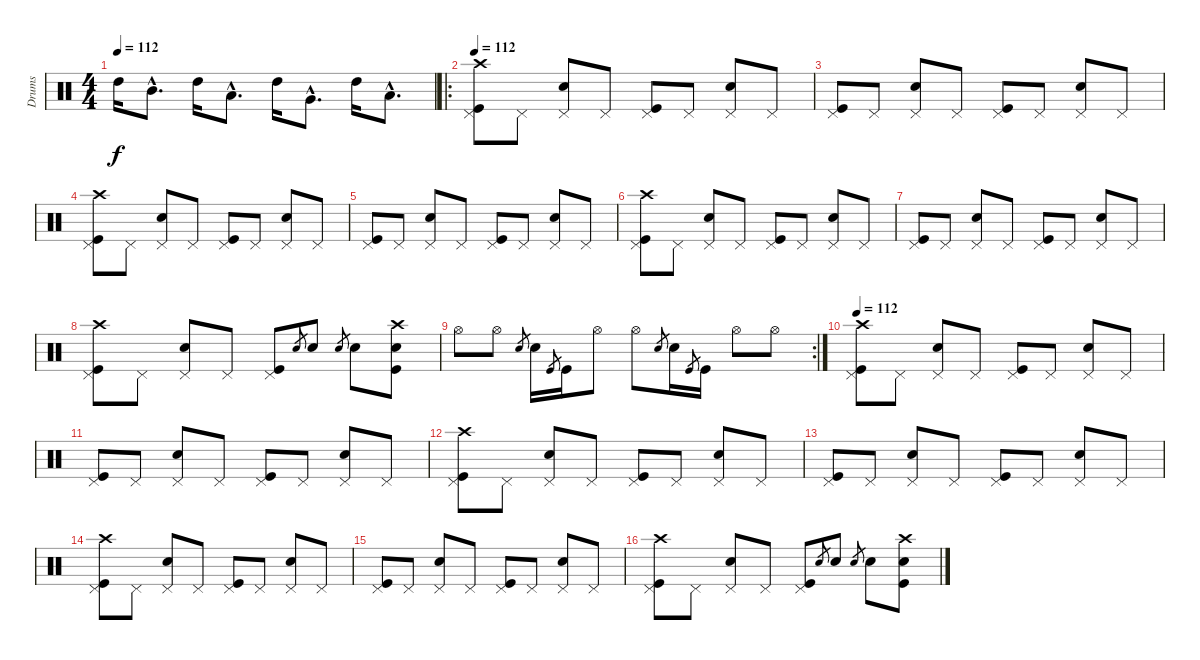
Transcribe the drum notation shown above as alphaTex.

\track ("Drums" "Drums") {instrument percussion}
\staff {score}
\articulation defaults
\ts (4 4)
\tempo 112
\clef neutral
\ks c "High Tom (hit)".16{dy f} "Mid Tom (hit)"{hac}.8{d} "High Tom (hit)".16 "Low Tom (hit)"{hac}.8{d} "High Tom (hit)".16 "Very Low Tom (hit)"{hac}.8{d} "High Tom (hit)".16 "Low Floor Tom (hit)"{hac}.8{d}
|
\ro
\tempo 112
("Crash high (hit)" "Pedal Hi-Hat (hit)" "Kick (hit)").8 "Pedal Hi-Hat (hit)".8 ("Pedal Hi-Hat (hit)" "Snare (hit) 2").8 "Pedal Hi-Hat (hit)".8 ("Pedal Hi-Hat (hit)" "Kick (hit)").8 "Pedal Hi-Hat (hit)".8 ("Pedal Hi-Hat (hit)" "Snare (hit) 2").8 "Pedal Hi-Hat (hit)".8 |
("Pedal Hi-Hat (hit)" "Kick (hit)").8 "Pedal Hi-Hat (hit)".8 ("Pedal Hi-Hat (hit)" "Snare (hit) 2").8 "Pedal Hi-Hat (hit)".8 ("Pedal Hi-Hat (hit)" "Kick (hit)").8 "Pedal Hi-Hat (hit)".8 ("Pedal Hi-Hat (hit)" "Snare (hit) 2").8 "Pedal Hi-Hat (hit)".8 |
("Crash high (hit)" "Pedal Hi-Hat (hit)" "Kick (hit)").8 "Pedal Hi-Hat (hit)".8 ("Pedal Hi-Hat (hit)" "Snare (hit) 2").8 "Pedal Hi-Hat (hit)".8 ("Pedal Hi-Hat (hit)" "Kick (hit)").8 "Pedal Hi-Hat (hit)".8 ("Pedal Hi-Hat (hit)" "Snare (hit) 2").8 "Pedal Hi-Hat (hit)".8 |
("Pedal Hi-Hat (hit)" "Kick (hit)").8 "Pedal Hi-Hat (hit)".8 ("Pedal Hi-Hat (hit)" "Snare (hit) 2").8 "Pedal Hi-Hat (hit)".8 ("Pedal Hi-Hat (hit)" "Kick (hit)").8 "Pedal Hi-Hat (hit)".8 ("Pedal Hi-Hat (hit)" "Snare (hit) 2").8 "Pedal Hi-Hat (hit)".8 |
("Crash high (hit)" "Pedal Hi-Hat (hit)" "Kick (hit)").8 "Pedal Hi-Hat (hit)".8 ("Pedal Hi-Hat (hit)" "Snare (hit) 2").8 "Pedal Hi-Hat (hit)".8 ("Pedal Hi-Hat (hit)" "Kick (hit)").8 "Pedal Hi-Hat (hit)".8 ("Pedal Hi-Hat (hit)" "Snare (hit) 2").8 "Pedal Hi-Hat (hit)".8 |
("Pedal Hi-Hat (hit)" "Kick (hit)").8 "Pedal Hi-Hat (hit)".8 ("Pedal Hi-Hat (hit)" "Snare (hit) 2").8 "Pedal Hi-Hat (hit)".8 ("Pedal Hi-Hat (hit)" "Kick (hit)").8 "Pedal Hi-Hat (hit)".8 ("Pedal Hi-Hat (hit)" "Snare (hit) 2").8 "Pedal Hi-Hat (hit)".8 |
("Crash high (hit)" "Pedal Hi-Hat (hit)" "Kick (hit)").8 "Pedal Hi-Hat (hit)".8 ("Pedal Hi-Hat (hit)" "Snare (hit) 2").8 "Pedal Hi-Hat (hit)".8 ("Pedal Hi-Hat (hit)" "Kick (hit)").8 "Snare (hit) 2".8{gr} "Snare (hit) 2".8 "Snare (hit) 2".8{gr} "Snare (hit) 2".8 ("Crash high (hit)" "Snare (hit) 2" "Kick (hit)").8 |
\rc 2 "Hi-Hat (open)".8 "Hi-Hat (open)".8 "Snare (hit) 2".8{gr} "Snare (hit) 2".16 "Kick (hit)".8{gr} "Kick (hit)".16 "Hi-Hat (open)".8 "Hi-Hat (open)".8 "Snare (hit) 2".8{gr} "Snare (hit) 2".16 "Kick (hit)".8{gr} "Kick (hit)".16 "Hi-Hat (open)".8 "Hi-Hat (open)".8
|
\tempo 112
("Crash high (hit)" "Pedal Hi-Hat (hit)" "Kick (hit)").8{volume 16} "Pedal Hi-Hat (hit)".8 ("Pedal Hi-Hat (hit)" "Snare (hit) 2").8 "Pedal Hi-Hat (hit)".8 ("Pedal Hi-Hat (hit)" "Kick (hit)").8 "Pedal Hi-Hat (hit)".8 ("Pedal Hi-Hat (hit)" "Snare (hit) 2").8 "Pedal Hi-Hat (hit)".8 |
("Pedal Hi-Hat (hit)" "Kick (hit)").8 "Pedal Hi-Hat (hit)".8 ("Pedal Hi-Hat (hit)" "Snare (hit) 2").8 "Pedal Hi-Hat (hit)".8 ("Pedal Hi-Hat (hit)" "Kick (hit)").8 "Pedal Hi-Hat (hit)".8 ("Pedal Hi-Hat (hit)" "Snare (hit) 2").8 "Pedal Hi-Hat (hit)".8 |
("Crash high (hit)" "Pedal Hi-Hat (hit)" "Kick (hit)").8 "Pedal Hi-Hat (hit)".8 ("Pedal Hi-Hat (hit)" "Snare (hit) 2").8 "Pedal Hi-Hat (hit)".8 ("Pedal Hi-Hat (hit)" "Kick (hit)").8 "Pedal Hi-Hat (hit)".8 ("Pedal Hi-Hat (hit)" "Snare (hit) 2").8 "Pedal Hi-Hat (hit)".8 |
("Pedal Hi-Hat (hit)" "Kick (hit)").8 "Pedal Hi-Hat (hit)".8 ("Pedal Hi-Hat (hit)" "Snare (hit) 2").8 "Pedal Hi-Hat (hit)".8 ("Pedal Hi-Hat (hit)" "Kick (hit)").8 "Pedal Hi-Hat (hit)".8 ("Pedal Hi-Hat (hit)" "Snare (hit) 2").8 "Pedal Hi-Hat (hit)".8 |
("Crash high (hit)" "Pedal Hi-Hat (hit)" "Kick (hit)").8 "Pedal Hi-Hat (hit)".8 ("Pedal Hi-Hat (hit)" "Snare (hit) 2").8 "Pedal Hi-Hat (hit)".8 ("Pedal Hi-Hat (hit)" "Kick (hit)").8 "Pedal Hi-Hat (hit)".8 ("Pedal Hi-Hat (hit)" "Snare (hit) 2").8 "Pedal Hi-Hat (hit)".8 |
("Pedal Hi-Hat (hit)" "Kick (hit)").8 "Pedal Hi-Hat (hit)".8 ("Pedal Hi-Hat (hit)" "Snare (hit) 2").8 "Pedal Hi-Hat (hit)".8 ("Pedal Hi-Hat (hit)" "Kick (hit)").8 "Pedal Hi-Hat (hit)".8 ("Pedal Hi-Hat (hit)" "Snare (hit) 2").8 "Pedal Hi-Hat (hit)".8 |
("Crash high (hit)" "Pedal Hi-Hat (hit)" "Kick (hit)").8 "Pedal Hi-Hat (hit)".8 ("Pedal Hi-Hat (hit)" "Snare (hit) 2").8 "Pedal Hi-Hat (hit)".8 ("Pedal Hi-Hat (hit)" "Kick (hit)").8 "Snare (hit) 2".8{gr} "Snare (hit) 2".8 "Snare (hit) 2".8{gr} "Snare (hit) 2".8 ("Crash high (hit)" "Snare (hit) 2" "Kick (hit)").8
